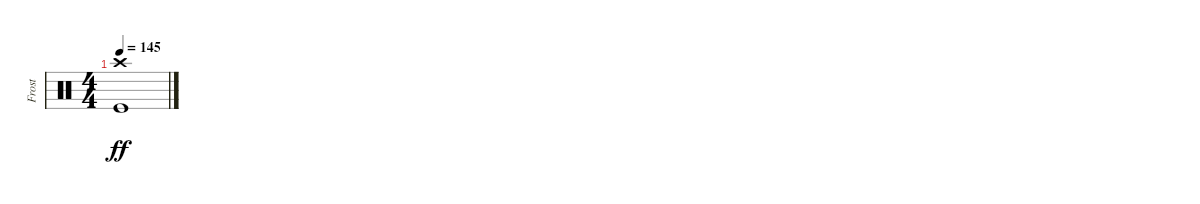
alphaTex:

\track ("Frost" "Frost") {instrument percussion}
\staff {score}
\articulation defaults
\ts (4 4)
\tempo 145
\clef neutral
\ks c
("Crash high (hit)" "Kick (hit)").1{dy ff}
